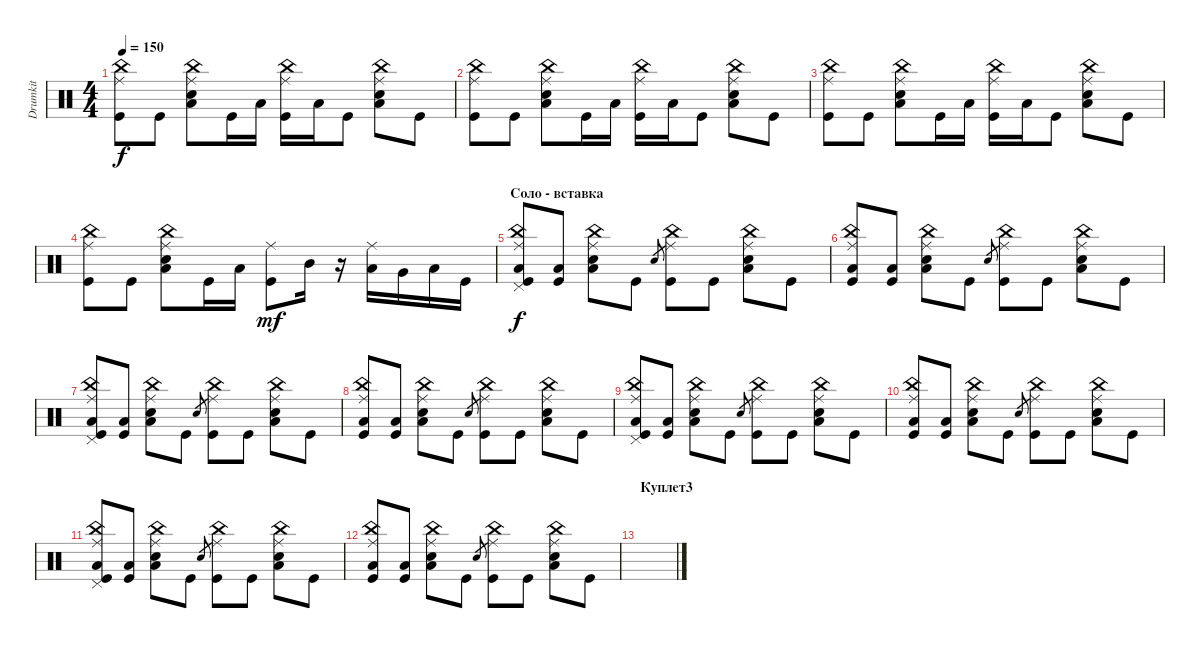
\track ("Drumkit" "Drumkit") {instrument percussion}
\staff {score}
\articulation defaults
\ts (4 4)
\tempo 150
\clef neutral
\ks c
("Kick (hit)" "China (hit)" "Ride (middle)").8{dy f} "Kick (hit)".8 ("Low Floor Tom (hit)" "Snare (hit) 2" "Ride (middle)" "China (hit)").8 "Kick (hit)".16 "Low Floor Tom (hit)".16 ("Kick (hit)" "Ride (middle)" "China (hit)").16 "Low Floor Tom (hit)".16 "Kick (hit)".8 ("Snare (hit) 2" "Ride (middle)" "Low Floor Tom (hit)" "China (hit)").8 "Kick (hit)".8 |
("Kick (hit)" "China (hit)" "Ride (middle)").8 "Kick (hit)".8 ("Low Floor Tom (hit)" "Snare (hit) 2" "Ride (middle)" "China (hit)").8 "Kick (hit)".16 "Low Floor Tom (hit)".16 ("Kick (hit)" "Ride (middle)" "China (hit)").16 "Low Floor Tom (hit)".16 "Kick (hit)".8 ("Snare (hit) 2" "Ride (middle)" "Low Floor Tom (hit)" "China (hit)").8 "Kick (hit)".8 |
("Kick (hit)" "China (hit)" "Ride (middle)").8 "Kick (hit)".8 ("Low Floor Tom (hit)" "Snare (hit) 2" "Ride (middle)" "China (hit)").8 "Kick (hit)".16 "Low Floor Tom (hit)".16 ("Kick (hit)" "Ride (middle)" "China (hit)").16 "Low Floor Tom (hit)".16 "Kick (hit)".8 ("Snare (hit) 2" "Ride (middle)" "Low Floor Tom (hit)" "China (hit)").8 "Kick (hit)".8 |
("Kick (hit)" "China (hit)" "Ride (middle)").8 "Kick (hit)".8 ("Low Floor Tom (hit)" "Snare (hit) 2" "Ride (middle)" "China (hit)").8 "Kick (hit)".16 "Low Floor Tom (hit)".16 ("Kick (hit)" "Ride (middle)").8{dy mf} "Mid Tom (hit)".16 r.16 ("Low Tom (hit)" "Ride (middle)").16 "Very Low Tom (hit)".16 "Low Floor Tom (hit)".16 "Kick (hit)".16 |
\section ("" "Соло - вставка")
("Kick (hit)" "Ride (middle)" "Low Floor Tom (hit)" "Pedal Hi-Hat (hit)" "China (hit)").8{dy f} ("Kick (hit)" "Low Floor Tom (hit)").8 ("Snare (hit) 2" "Ride (middle)" "Low Floor Tom (hit)" "China (hit)").8 "Kick (hit)".8 "Snare (hit)".8{gr} ("Kick (hit)" "Ride (middle)" "China (hit)").8 "Kick (hit)".8 ("Snare (hit) 2" "Ride (middle)" "Low Floor Tom (hit)" "China (hit)").8 "Kick (hit)".8 |
("Kick (hit)" "Ride (middle)" "Low Floor Tom (hit)" "China (hit)").8 ("Kick (hit)" "Low Floor Tom (hit)").8 ("Snare (hit) 2" "Ride (middle)" "Low Floor Tom (hit)" "China (hit)").8 "Kick (hit)".8 "Snare (hit)".8{gr} ("Kick (hit)" "Ride (middle)" "China (hit)").8 "Kick (hit)".8 ("Snare (hit) 2" "Ride (middle)" "Low Floor Tom (hit)" "China (hit)").8 "Kick (hit)".8 |
("Kick (hit)" "Ride (middle)" "Low Floor Tom (hit)" "Pedal Hi-Hat (hit)" "China (hit)").8 ("Kick (hit)" "Low Floor Tom (hit)").8 ("Snare (hit) 2" "Ride (middle)" "Low Floor Tom (hit)" "China (hit)").8 "Kick (hit)".8 "Snare (hit)".8{gr} ("Kick (hit)" "Ride (middle)" "China (hit)").8 "Kick (hit)".8 ("Snare (hit) 2" "Ride (middle)" "Low Floor Tom (hit)" "China (hit)").8 "Kick (hit)".8 |
("Kick (hit)" "Ride (middle)" "Low Floor Tom (hit)" "China (hit)").8 ("Kick (hit)" "Low Floor Tom (hit)").8 ("Snare (hit) 2" "Ride (middle)" "Low Floor Tom (hit)" "China (hit)").8 "Kick (hit)".8 "Snare (hit)".8{gr} ("Kick (hit)" "Ride (middle)" "China (hit)").8 "Kick (hit)".8 ("Snare (hit) 2" "Ride (middle)" "Low Floor Tom (hit)" "China (hit)").8 "Kick (hit)".8 |
("Kick (hit)" "Ride (middle)" "Low Floor Tom (hit)" "Pedal Hi-Hat (hit)" "China (hit)").8 ("Kick (hit)" "Low Floor Tom (hit)").8 ("Snare (hit) 2" "Ride (middle)" "Low Floor Tom (hit)" "China (hit)").8 "Kick (hit)".8 "Snare (hit)".8{gr} ("Kick (hit)" "Ride (middle)" "China (hit)").8 "Kick (hit)".8 ("Snare (hit) 2" "Ride (middle)" "Low Floor Tom (hit)" "China (hit)").8 "Kick (hit)".8 |
("Kick (hit)" "Ride (middle)" "Low Floor Tom (hit)" "China (hit)").8 ("Kick (hit)" "Low Floor Tom (hit)").8 ("Snare (hit) 2" "Ride (middle)" "Low Floor Tom (hit)" "China (hit)").8 "Kick (hit)".8 "Snare (hit)".8{gr} ("Kick (hit)" "Ride (middle)" "China (hit)").8 "Kick (hit)".8 ("Snare (hit) 2" "Ride (middle)" "Low Floor Tom (hit)" "China (hit)").8 "Kick (hit)".8 |
("Kick (hit)" "Ride (middle)" "Low Floor Tom (hit)" "Pedal Hi-Hat (hit)" "China (hit)").8 ("Kick (hit)" "Low Floor Tom (hit)").8 ("Snare (hit) 2" "Ride (middle)" "Low Floor Tom (hit)" "China (hit)").8 "Kick (hit)".8 "Snare (hit)".8{gr} ("Kick (hit)" "Ride (middle)" "China (hit)").8 "Kick (hit)".8 ("Snare (hit) 2" "Ride (middle)" "Low Floor Tom (hit)" "China (hit)").8 "Kick (hit)".8 |
("Kick (hit)" "Ride (middle)" "Low Floor Tom (hit)" "China (hit)").8 ("Kick (hit)" "Low Floor Tom (hit)").8 ("Snare (hit) 2" "Ride (middle)" "Low Floor Tom (hit)" "China (hit)").8 "Kick (hit)".8 "Snare (hit)".8{gr} ("Kick (hit)" "Ride (middle)" "China (hit)").8 "Kick (hit)".8 ("Snare (hit) 2" "Ride (middle)" "Low Floor Tom (hit)" "China (hit)").8 "Kick (hit)".8 |
\section ("" "Куплет3")
